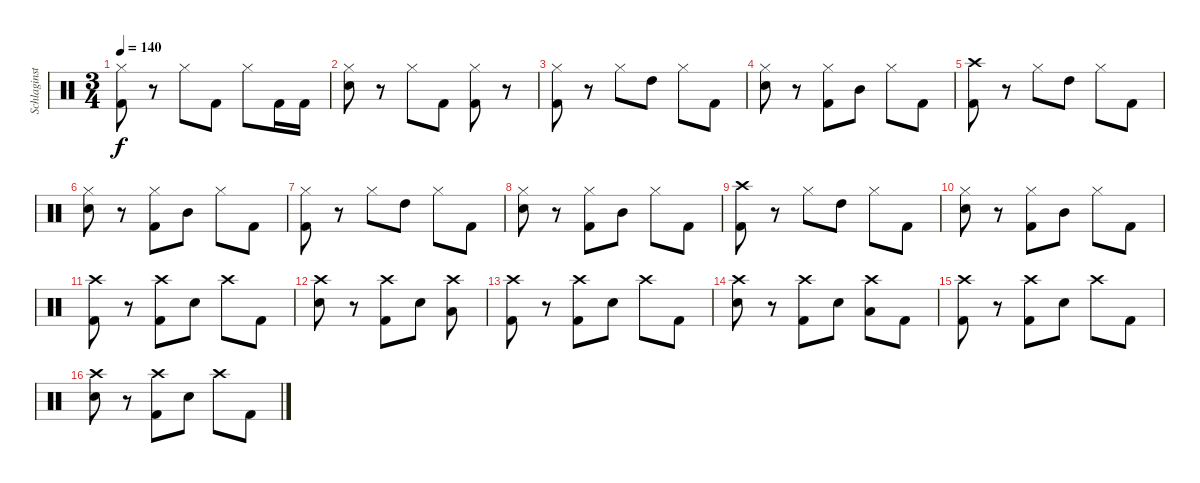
\track ("Schlaginstrumente - Auswahl" "Schlaginst") {instrument percussion}
\staff {score}
\articulation defaults
\ts (3 4)
\tempo 140
\clef neutral
\ks c
("Hi-Hat (closed)" "Kick (hit) 2").8{dy f} r.8 "Hi-Hat (closed)".8 "Kick (hit) 2".8 "Hi-Hat (closed)".8 "Kick (hit) 2".16 "Kick (hit) 2".16 |
("Hi-Hat (closed)" "Electric Snare (hit)").8 r.8 "Hi-Hat (closed)".8 "Kick (hit) 2".8 ("Hi-Hat (closed)" "Kick (hit) 2").8 r.8 |
("Hi-Hat (closed)" "Kick (hit) 2").8 r.8 "Hi-Hat (closed)".8 "High Tom (hit)".8 "Hi-Hat (closed)".8 "Kick (hit) 2".8 |
("Hi-Hat (closed)" "Electric Snare (hit)").8 r.8 ("Hi-Hat (closed)" "Kick (hit) 2").8 "Mid Tom (hit)".8 "Hi-Hat (closed)".8 "Kick (hit) 2".8 |
("Crash high (hit)" "Kick (hit) 2").8 r.8 "Hi-Hat (closed)".8 "High Tom (hit)".8 "Hi-Hat (closed)".8 "Kick (hit) 2".8 |
("Hi-Hat (closed)" "Electric Snare (hit)").8 r.8 ("Hi-Hat (closed)" "Kick (hit) 2").8 "Mid Tom (hit)".8 "Hi-Hat (closed)".8 "Kick (hit) 2".8 |
("Hi-Hat (closed)" "Kick (hit) 2").8 r.8 "Hi-Hat (closed)".8 "High Tom (hit)".8 "Hi-Hat (closed)".8 "Kick (hit) 2".8 |
("Hi-Hat (closed)" "Electric Snare (hit)").8 r.8 ("Hi-Hat (closed)" "Kick (hit) 2").8 "Mid Tom (hit)".8 "Hi-Hat (closed)".8 "Kick (hit) 2".8 |
("Crash high (hit)" "Kick (hit) 2").8 r.8 "Hi-Hat (closed)".8 "High Tom (hit)".8 "Hi-Hat (closed)".8 "Kick (hit) 2".8 |
("Hi-Hat (closed)" "Electric Snare (hit)").8 r.8 ("Hi-Hat (closed)" "Kick (hit) 2").8 "Mid Tom (hit)".8 "Hi-Hat (closed)".8 "Kick (hit) 2".8 |
("Crash high (hit)" "Kick (hit) 2").8 r.8 ("Crash high (hit)" "Kick (hit) 2").8 "Electric Snare (hit)".8 "Crash high (hit)".8 "Kick (hit) 2".8 |
("Crash high (hit)" "Electric Snare (hit)").8 r.8 ("Crash high (hit)" "Kick (hit) 2").8 "Electric Snare (hit)".8 ("Crash high (hit)" "Low Tom (hit)").8 |
("Crash high (hit)" "Kick (hit) 2").8 r.8 ("Crash high (hit)" "Kick (hit) 2").8 "Electric Snare (hit)".8 "Crash high (hit)".8 "Kick (hit) 2".8 |
("Crash high (hit)" "Electric Snare (hit)").8 r.8 ("Crash high (hit)" "Kick (hit) 2").8 "Electric Snare (hit)".8 ("Crash high (hit)" "Low Tom (hit)").8 "Kick (hit) 2".8 |
("Crash high (hit)" "Kick (hit) 2").8 r.8 ("Crash high (hit)" "Kick (hit) 2").8 "Electric Snare (hit)".8 "Crash high (hit)".8 "Kick (hit) 2".8 |
("Crash high (hit)" "Electric Snare (hit)").8 r.8 ("Crash high (hit)" "Kick (hit) 2").8 "Electric Snare (hit)".8 "Crash high (hit)".8 "Kick (hit) 2".8
